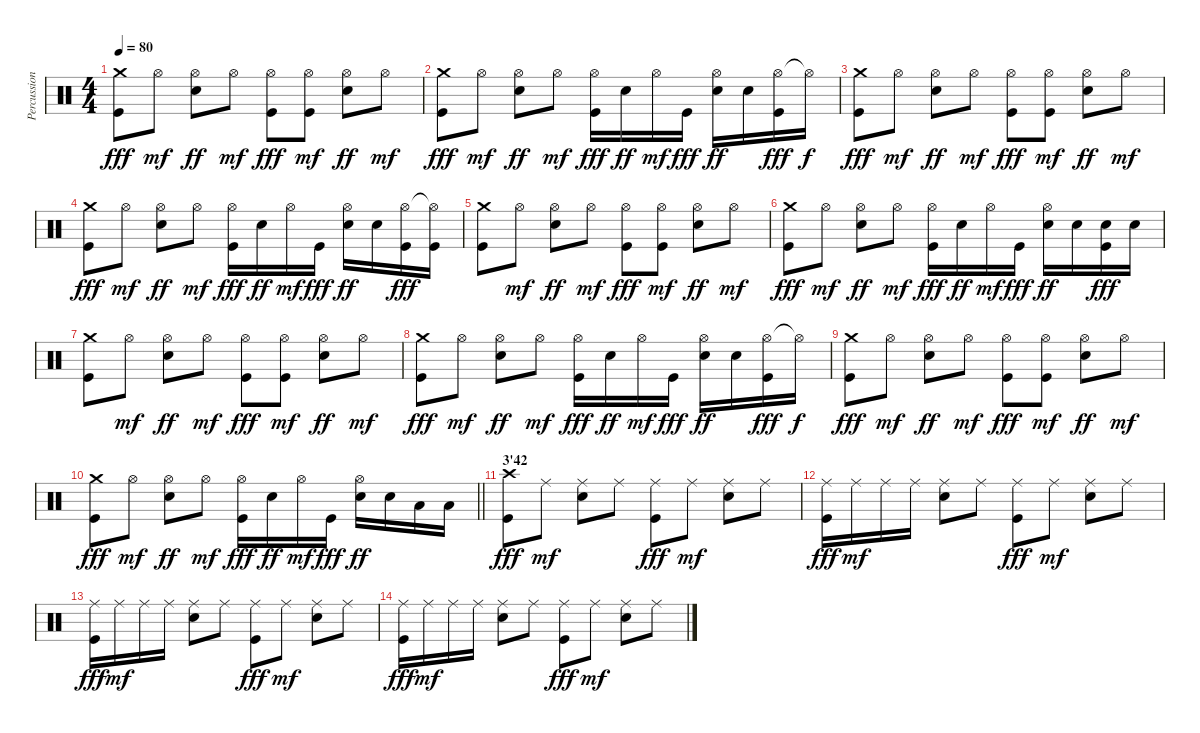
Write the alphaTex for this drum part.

\track ("Percussions" "Percussion") {instrument percussion}
\staff {score}
\articulation defaults
\ts (4 4)
\tempo 80
\clef neutral
\ks c
("Crash medium (hit)" "Kick (hit)").8{dy fff} "Hi-Hat (open)".8{dy mf} ("Hi-Hat (open)" "Snare (hit) 2").8{dy ff} "Hi-Hat (open)".8{dy mf} ("Hi-Hat (open)" "Kick (hit)").8{dy fff} ("Hi-Hat (open)" "Kick (hit)").8{dy mf} ("Hi-Hat (open)" "Snare (hit) 2").8{dy ff} "Hi-Hat (open)".8{dy mf} |
("Crash medium (hit)" "Kick (hit)").8{dy fff} "Hi-Hat (open)".8{dy mf} ("Hi-Hat (open)" "Snare (hit) 2").8{dy ff} "Hi-Hat (open)".8{dy mf} ("Hi-Hat (open)" "Kick (hit)").16{dy fff} "Snare (hit) 2".16{dy ff} "Hi-Hat (open)".16{dy mf} "Kick (hit)".16{dy fff} ("Hi-Hat (open)" "Snare (hit) 2").16{dy ff} "Snare (hit) 2".16 ("Hi-Hat (open)" "Kick (hit)").16{dy fff} "Hi-Hat (open)"{t}.16{dy f} |
("Crash medium (hit)" "Kick (hit)").8{dy fff} "Hi-Hat (open)".8{dy mf} ("Hi-Hat (open)" "Snare (hit) 2").8{dy ff} "Hi-Hat (open)".8{dy mf} ("Hi-Hat (open)" "Kick (hit)").8{dy fff} ("Hi-Hat (open)" "Kick (hit)").8{dy mf} ("Hi-Hat (open)" "Snare (hit) 2").8{dy ff} "Hi-Hat (open)".8{dy mf} |
("Crash medium (hit)" "Kick (hit)").8{dy fff} "Hi-Hat (open)".8{dy mf} ("Hi-Hat (open)" "Snare (hit) 2").8{dy ff} "Hi-Hat (open)".8{dy mf} ("Hi-Hat (open)" "Kick (hit)").16{dy fff} "Snare (hit) 2".16{dy ff} "Hi-Hat (open)".16{dy mf} "Kick (hit)".16{dy fff} ("Hi-Hat (open)" "Snare (hit) 2").16{dy ff} "Snare (hit) 2".16 ("Hi-Hat (open)" "Kick (hit)").16{dy fff} ("Hi-Hat (open)"{t} "Kick (hit)").16 |
("Crash medium (hit)" "Kick (hit)").8 "Hi-Hat (open)".8{dy mf} ("Hi-Hat (open)" "Snare (hit) 2").8{dy ff} "Hi-Hat (open)".8{dy mf} ("Hi-Hat (open)" "Kick (hit)").8{dy fff} ("Hi-Hat (open)" "Kick (hit)").8{dy mf} ("Hi-Hat (open)" "Snare (hit) 2").8{dy ff} "Hi-Hat (open)".8{dy mf} |
("Crash medium (hit)" "Kick (hit)").8{dy fff} "Hi-Hat (open)".8{dy mf} ("Hi-Hat (open)" "Snare (hit) 2").8{dy ff} "Hi-Hat (open)".8{dy mf} ("Hi-Hat (open)" "Kick (hit)").16{dy fff} "Snare (hit) 2".16{dy ff} "Hi-Hat (open)".16{dy mf} "Kick (hit)".16{dy fff} ("Hi-Hat (open)" "Snare (hit) 2").16{dy ff} "Snare (hit) 2".16 ("Snare (hit) 2" "Kick (hit)").16{dy fff} "Snare (hit) 2".16 |
("Crash medium (hit)" "Kick (hit)").8 "Hi-Hat (open)".8{dy mf} ("Hi-Hat (open)" "Snare (hit) 2").8{dy ff} "Hi-Hat (open)".8{dy mf} ("Hi-Hat (open)" "Kick (hit)").8{dy fff} ("Hi-Hat (open)" "Kick (hit)").8{dy mf} ("Hi-Hat (open)" "Snare (hit) 2").8{dy ff} "Hi-Hat (open)".8{dy mf} |
("Crash medium (hit)" "Kick (hit)").8{dy fff} "Hi-Hat (open)".8{dy mf} ("Hi-Hat (open)" "Snare (hit) 2").8{dy ff} "Hi-Hat (open)".8{dy mf} ("Hi-Hat (open)" "Kick (hit)").16{dy fff} "Snare (hit) 2".16{dy ff} "Hi-Hat (open)".16{dy mf} "Kick (hit)".16{dy fff} ("Hi-Hat (open)" "Snare (hit) 2").16{dy ff} "Snare (hit) 2".16 ("Hi-Hat (open)" "Kick (hit)").16{dy fff} "Hi-Hat (open)"{t}.16{dy f} |
("Crash medium (hit)" "Kick (hit)").8{dy fff} "Hi-Hat (open)".8{dy mf} ("Hi-Hat (open)" "Snare (hit) 2").8{dy ff} "Hi-Hat (open)".8{dy mf} ("Hi-Hat (open)" "Kick (hit)").8{dy fff} ("Hi-Hat (open)" "Kick (hit)").8{dy mf} ("Hi-Hat (open)" "Snare (hit) 2").8{dy ff} "Hi-Hat (open)".8{dy mf} |
\barLineRight lightlight
("Crash medium (hit)" "Kick (hit)").8{dy fff} "Hi-Hat (open)".8{dy mf} ("Hi-Hat (open)" "Snare (hit) 2").8{dy ff} "Hi-Hat (open)".8{dy mf} ("Hi-Hat (open)" "Kick (hit)").16{dy fff} "Snare (hit) 2".16{dy ff} "Hi-Hat (open)".16{dy mf} "Kick (hit)".16{dy fff} ("Hi-Hat (open)" "Snare (hit) 2").16{dy ff} "Snare (hit) 2".16 "Low Floor Tom (hit)".16 "Low Floor Tom (hit)".16 |
\section ("" "3'42")
("Crash high (hit)" "Kick (hit)").8{dy fff} "Ride (middle)".8{dy mf} ("Ride (middle)" "Snare (hit) 2").8 "Ride (middle)".8 ("Ride (middle)" "Kick (hit)").8{dy fff} "Ride (middle)".8{dy mf} ("Ride (middle)" "Snare (hit) 2").8 "Ride (middle)".8 |
("Ride (middle)" "Kick (hit)").16{dy fff} "Ride (middle)".16{dy mf} "Ride (middle)".16 "Ride (middle)".16 ("Ride (middle)" "Snare (hit) 2").8 "Ride (middle)".8 ("Ride (middle)" "Kick (hit)").8{dy fff} "Ride (middle)".8{dy mf} ("Ride (middle)" "Snare (hit) 2").8 "Ride (middle)".8 |
("Ride (middle)" "Kick (hit)").16{dy fff} "Ride (middle)".16{dy mf} "Ride (middle)".16 "Ride (middle)".16 ("Ride (middle)" "Snare (hit) 2").8 "Ride (middle)".8 ("Ride (middle)" "Kick (hit)").8{dy fff} "Ride (middle)".8{dy mf} ("Ride (middle)" "Snare (hit) 2").8 "Ride (middle)".8 |
("Ride (middle)" "Kick (hit)").16{dy fff} "Ride (middle)".16{dy mf} "Ride (middle)".16 "Ride (middle)".16 ("Ride (middle)" "Snare (hit) 2").8 "Ride (middle)".8 ("Ride (middle)" "Kick (hit)").8{dy fff} "Ride (middle)".8{dy mf} ("Ride (middle)" "Snare (hit) 2").8 "Ride (middle)".8
